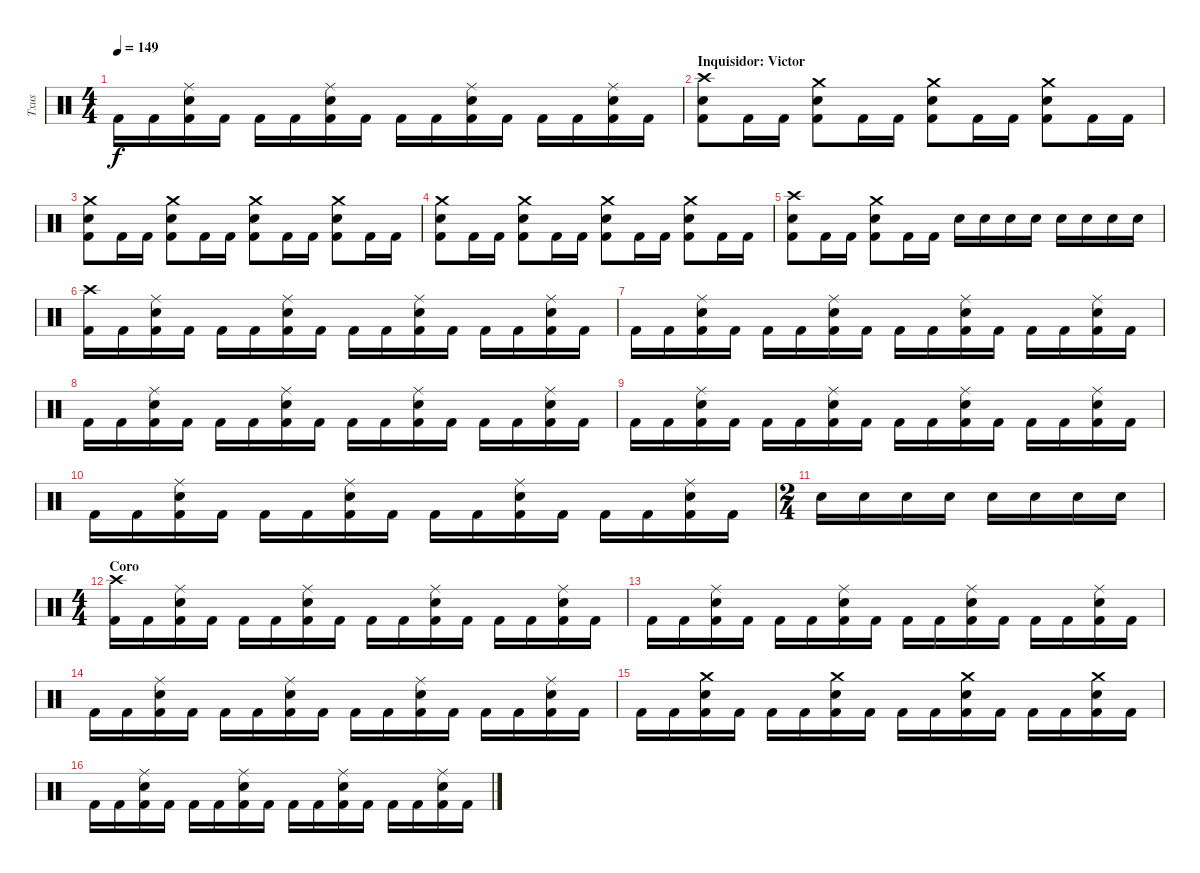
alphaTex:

\track ("Txus" "Txus") {instrument percussion}
\staff {score}
\articulation defaults
\ts (4 4)
\tempo 149
\clef neutral
\ks c "Kick (hit) 2".16{dy f} "Kick (hit) 2".16
("Kick (hit) 2" "Electric Snare (hit)" "Ride (middle)").16 "Kick (hit) 2".16 "Kick (hit) 2".16 "Kick (hit) 2".16 ("Kick (hit) 2" "Electric Snare (hit)" "Ride (middle)").16 "Kick (hit) 2".16 "Kick (hit) 2".16 "Kick (hit) 2".16 ("Kick (hit) 2" "Electric Snare (hit)" "Ride (middle)").16 "Kick (hit) 2".16 "Kick (hit) 2".16 "Kick (hit) 2".16 ("Kick (hit) 2" "Electric Snare (hit)" "Ride (middle)").16 "Kick (hit) 2".16 |
\section ("" "Inquisidor: Victor")
("Kick (hit) 2" "Electric Snare (hit)" "Crash high (hit)").8 "Kick (hit) 2".16 "Kick (hit) 2".16 ("Kick (hit) 2" "Electric Snare (hit)" "Crash medium (hit)").8 "Kick (hit) 2".16 "Kick (hit) 2".16 ("Kick (hit) 2" "Electric Snare (hit)" "Crash medium (hit)").8 "Kick (hit) 2".16 "Kick (hit) 2".16 ("Kick (hit) 2" "Electric Snare (hit)" "Crash medium (hit)").8 "Kick (hit) 2".16 "Kick (hit) 2".16 |
("Kick (hit) 2" "Electric Snare (hit)" "Crash medium (hit)").8 "Kick (hit) 2".16 "Kick (hit) 2".16 ("Kick (hit) 2" "Electric Snare (hit)" "Crash medium (hit)").8 "Kick (hit) 2".16 "Kick (hit) 2".16 ("Kick (hit) 2" "Electric Snare (hit)" "Crash medium (hit)").8 "Kick (hit) 2".16 "Kick (hit) 2".16 ("Kick (hit) 2" "Electric Snare (hit)" "Crash medium (hit)").8 "Kick (hit) 2".16 "Kick (hit) 2".16 |
("Kick (hit) 2" "Electric Snare (hit)" "Crash medium (hit)").8 "Kick (hit) 2".16 "Kick (hit) 2".16 ("Kick (hit) 2" "Electric Snare (hit)" "Crash medium (hit)").8 "Kick (hit) 2".16 "Kick (hit) 2".16 ("Kick (hit) 2" "Electric Snare (hit)" "Crash medium (hit)").8 "Kick (hit) 2".16 "Kick (hit) 2".16 ("Kick (hit) 2" "Electric Snare (hit)" "Crash medium (hit)").8 "Kick (hit) 2".16 "Kick (hit) 2".16 |
("Kick (hit) 2" "Electric Snare (hit)" "Crash high (hit)").8 "Kick (hit) 2".16 "Kick (hit) 2".16 ("Kick (hit) 2" "Electric Snare (hit)" "Crash medium (hit)").8 "Kick (hit) 2".16 "Kick (hit) 2".16 "Electric Snare (hit)".16 "Electric Snare (hit)".16 "Electric Snare (hit)".16 "Electric Snare (hit)".16 "Electric Snare (hit)".16 "Electric Snare (hit)".16 "Electric Snare (hit)".16 "Electric Snare (hit)".16 |
("Kick (hit) 2" "Crash high (hit)").16 "Kick (hit) 2".16 ("Kick (hit) 2" "Electric Snare (hit)" "Ride (middle)").16 "Kick (hit) 2".16 "Kick (hit) 2".16 "Kick (hit) 2".16 ("Kick (hit) 2" "Electric Snare (hit)" "Ride (middle)").16 "Kick (hit) 2".16 "Kick (hit) 2".16 "Kick (hit) 2".16 ("Kick (hit) 2" "Electric Snare (hit)" "Ride (middle)").16 "Kick (hit) 2".16 "Kick (hit) 2".16 "Kick (hit) 2".16 ("Kick (hit) 2" "Electric Snare (hit)" "Ride (middle)").16 "Kick (hit) 2".16 |
"Kick (hit) 2".16 "Kick (hit) 2".16 ("Kick (hit) 2" "Electric Snare (hit)" "Ride (middle)").16 "Kick (hit) 2".16 "Kick (hit) 2".16 "Kick (hit) 2".16 ("Kick (hit) 2" "Electric Snare (hit)" "Ride (middle)").16 "Kick (hit) 2".16 "Kick (hit) 2".16 "Kick (hit) 2".16 ("Kick (hit) 2" "Electric Snare (hit)" "Ride (middle)").16 "Kick (hit) 2".16 "Kick (hit) 2".16 "Kick (hit) 2".16 ("Kick (hit) 2" "Electric Snare (hit)" "Ride (middle)").16 "Kick (hit) 2".16 |
"Kick (hit) 2".16 "Kick (hit) 2".16 ("Kick (hit) 2" "Electric Snare (hit)" "Ride (middle)").16 "Kick (hit) 2".16 "Kick (hit) 2".16 "Kick (hit) 2".16 ("Kick (hit) 2" "Electric Snare (hit)" "Ride (middle)").16 "Kick (hit) 2".16 "Kick (hit) 2".16 "Kick (hit) 2".16 ("Kick (hit) 2" "Electric Snare (hit)" "Ride (middle)").16 "Kick (hit) 2".16 "Kick (hit) 2".16 "Kick (hit) 2".16 ("Kick (hit) 2" "Electric Snare (hit)" "Ride (middle)").16 "Kick (hit) 2".16 |
"Kick (hit) 2".16 "Kick (hit) 2".16 ("Kick (hit) 2" "Electric Snare (hit)" "Ride (middle)").16 "Kick (hit) 2".16 "Kick (hit) 2".16 "Kick (hit) 2".16 ("Kick (hit) 2" "Electric Snare (hit)" "Ride (middle)").16 "Kick (hit) 2".16 "Kick (hit) 2".16 "Kick (hit) 2".16 ("Kick (hit) 2" "Electric Snare (hit)" "Ride (middle)").16 "Kick (hit) 2".16 "Kick (hit) 2".16 "Kick (hit) 2".16 ("Kick (hit) 2" "Electric Snare (hit)" "Ride (middle)").16 "Kick (hit) 2".16 |
"Kick (hit) 2".16 "Kick (hit) 2".16 ("Kick (hit) 2" "Electric Snare (hit)" "Ride (middle)").16 "Kick (hit) 2".16 "Kick (hit) 2".16 "Kick (hit) 2".16 ("Kick (hit) 2" "Electric Snare (hit)" "Ride (middle)").16 "Kick (hit) 2".16 "Kick (hit) 2".16 "Kick (hit) 2".16 ("Kick (hit) 2" "Electric Snare (hit)" "Ride (middle)").16 "Kick (hit) 2".16 "Kick (hit) 2".16 "Kick (hit) 2".16 ("Kick (hit) 2" "Electric Snare (hit)" "Ride (middle)").16 "Kick (hit) 2".16 |
\ts (2 4)
"Electric Snare (hit)".16 "Electric Snare (hit)".16 "Electric Snare (hit)".16 "Electric Snare (hit)".16 "Electric Snare (hit)".16 "Electric Snare (hit)".16 "Electric Snare (hit)".16 "Electric Snare (hit)".16 |
\ts (4 4)
\section ("" "Coro")
("Kick (hit) 2" "Crash high (hit)").16 "Kick (hit) 2".16 ("Kick (hit) 2" "Electric Snare (hit)" "Ride (middle)").16 "Kick (hit) 2".16 "Kick (hit) 2".16 "Kick (hit) 2".16 ("Kick (hit) 2" "Electric Snare (hit)" "Ride (middle)").16 "Kick (hit) 2".16 "Kick (hit) 2".16 "Kick (hit) 2".16 ("Kick (hit) 2" "Electric Snare (hit)" "Ride (middle)").16 "Kick (hit) 2".16 "Kick (hit) 2".16 "Kick (hit) 2".16 ("Kick (hit) 2" "Electric Snare (hit)" "Ride (middle)").16 "Kick (hit) 2".16 |
"Kick (hit) 2".16 "Kick (hit) 2".16 ("Kick (hit) 2" "Electric Snare (hit)" "Ride (middle)").16 "Kick (hit) 2".16 "Kick (hit) 2".16 "Kick (hit) 2".16 ("Kick (hit) 2" "Electric Snare (hit)" "Ride (middle)").16 "Kick (hit) 2".16 "Kick (hit) 2".16 "Kick (hit) 2".16 ("Kick (hit) 2" "Electric Snare (hit)" "Ride (middle)").16 "Kick (hit) 2".16 "Kick (hit) 2".16 "Kick (hit) 2".16 ("Kick (hit) 2" "Electric Snare (hit)" "Ride (middle)").16 "Kick (hit) 2".16 |
"Kick (hit) 2".16 "Kick (hit) 2".16 ("Kick (hit) 2" "Electric Snare (hit)" "Ride (middle)").16 "Kick (hit) 2".16 "Kick (hit) 2".16 "Kick (hit) 2".16 ("Kick (hit) 2" "Electric Snare (hit)" "Ride (middle)").16 "Kick (hit) 2".16 "Kick (hit) 2".16 "Kick (hit) 2".16 ("Kick (hit) 2" "Electric Snare (hit)" "Ride (middle)").16 "Kick (hit) 2".16 "Kick (hit) 2".16 "Kick (hit) 2".16 ("Kick (hit) 2" "Electric Snare (hit)" "Ride (middle)").16 "Kick (hit) 2".16 |
"Kick (hit) 2".16 "Kick (hit) 2".16 ("Kick (hit) 2" "Electric Snare (hit)" "Crash medium (hit)").16 "Kick (hit) 2".16 "Kick (hit) 2".16 "Kick (hit) 2".16 ("Kick (hit) 2" "Electric Snare (hit)" "Crash medium (hit)").16 "Kick (hit) 2".16 "Kick (hit) 2".16 "Kick (hit) 2".16 ("Kick (hit) 2" "Electric Snare (hit)" "Crash medium (hit)").16 "Kick (hit) 2".16 "Kick (hit) 2".16 "Kick (hit) 2".16 ("Kick (hit) 2" "Electric Snare (hit)" "Crash medium (hit)").16 "Kick (hit) 2".16 |
"Kick (hit) 2".16 "Kick (hit) 2".16 ("Kick (hit) 2" "Electric Snare (hit)" "Ride (middle)").16 "Kick (hit) 2".16 "Kick (hit) 2".16 "Kick (hit) 2".16 ("Kick (hit) 2" "Electric Snare (hit)" "Ride (middle)").16 "Kick (hit) 2".16 "Kick (hit) 2".16 "Kick (hit) 2".16 ("Kick (hit) 2" "Electric Snare (hit)" "Ride (middle)").16 "Kick (hit) 2".16 "Kick (hit) 2".16 "Kick (hit) 2".16 ("Kick (hit) 2" "Electric Snare (hit)" "Ride (middle)").16 "Kick (hit) 2".16
